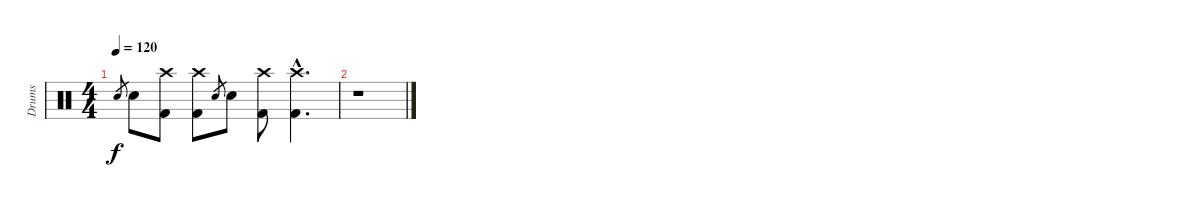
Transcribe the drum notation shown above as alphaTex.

\track ("Drums" "Drums") {instrument percussion}
\staff {score}
\articulation defaults
\ts (4 4)
\tempo 120
\clef neutral
\ks c "Snare (hit) 2".8{gr dy f} "Snare (hit) 2".8
("Crash high (hit)" "Kick (hit) 2").8 ("Crash high (hit)" "Kick (hit) 2").8 "Snare (hit) 2".8{gr} "Snare (hit) 2".8 ("Crash high (hit)" "Kick (hit) 2").8 ("Crash high (hit)"{hac} "Kick (hit) 2"{hac}).4{d} |
r.1
